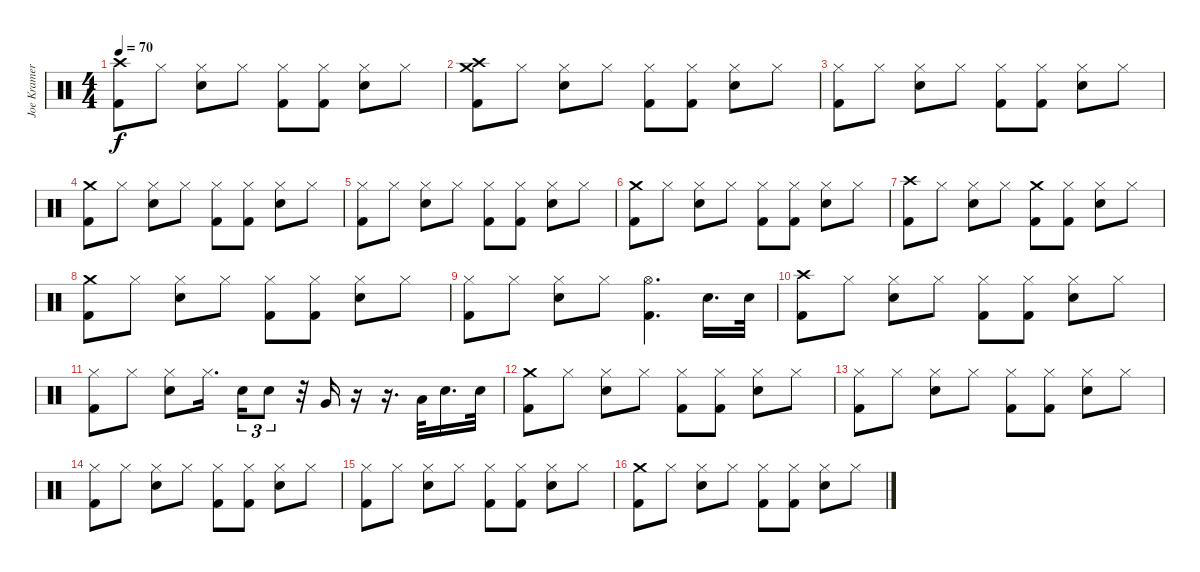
\track ("Joe Kramer" "Joe Kramer") {instrument percussion}
\staff {score}
\articulation defaults
\ts (4 4)
\tempo 70
\clef neutral
\ks c
("Crash high (hit)" "Kick (hit) 2").8{dy f} "Hi-Hat (closed)".8 ("Hi-Hat (closed)" "Snare (hit) 2").8 "Hi-Hat (closed)".8 ("Hi-Hat (closed)" "Kick (hit) 2").8 ("Hi-Hat (closed)" "Kick (hit) 2").8 ("Hi-Hat (closed)" "Snare (hit) 2").8 "Hi-Hat (closed)".8 |
("Crash medium (hit)" "Kick (hit) 2" "Crash high (hit)").8 "Hi-Hat (closed)".8 ("Hi-Hat (closed)" "Snare (hit) 2").8 "Hi-Hat (closed)".8 ("Hi-Hat (closed)" "Kick (hit) 2").8 ("Hi-Hat (closed)" "Kick (hit) 2").8 ("Hi-Hat (closed)" "Snare (hit) 2").8 "Hi-Hat (closed)".8 |
("Hi-Hat (closed)" "Kick (hit) 2").8 "Hi-Hat (closed)".8 ("Hi-Hat (closed)" "Snare (hit) 2").8 "Hi-Hat (closed)".8 ("Hi-Hat (closed)" "Kick (hit) 2").8 ("Hi-Hat (closed)" "Kick (hit) 2").8 ("Hi-Hat (closed)" "Snare (hit) 2").8 "Hi-Hat (closed)".8 |
("Crash medium (hit)" "Kick (hit) 2").8 "Hi-Hat (closed)".8 ("Hi-Hat (closed)" "Snare (hit) 2").8 "Hi-Hat (closed)".8 ("Hi-Hat (closed)" "Kick (hit) 2").8 ("Hi-Hat (closed)" "Kick (hit) 2").8 ("Hi-Hat (closed)" "Snare (hit) 2").8 "Hi-Hat (closed)".8 |
("Hi-Hat (closed)" "Kick (hit) 2").8 "Hi-Hat (closed)".8 ("Hi-Hat (closed)" "Snare (hit) 2").8 "Hi-Hat (closed)".8 ("Hi-Hat (closed)" "Kick (hit) 2").8 ("Hi-Hat (closed)" "Kick (hit) 2").8 ("Hi-Hat (closed)" "Snare (hit) 2").8 "Hi-Hat (closed)".8 |
("Crash medium (hit)" "Kick (hit) 2").8 "Hi-Hat (closed)".8 ("Hi-Hat (closed)" "Snare (hit) 2").8 "Hi-Hat (closed)".8 ("Hi-Hat (closed)" "Kick (hit) 2").8 ("Hi-Hat (closed)" "Kick (hit) 2").8 ("Hi-Hat (closed)" "Snare (hit) 2").8 "Hi-Hat (closed)".8 |
("Crash high (hit)" "Kick (hit) 2").8 "Hi-Hat (closed)".8 ("Hi-Hat (closed)" "Snare (hit) 2").8 "Hi-Hat (closed)".8 ("Crash medium (hit)" "Kick (hit) 2").8 ("Hi-Hat (closed)" "Kick (hit) 2").8 ("Hi-Hat (closed)" "Snare (hit) 2").8 "Hi-Hat (closed)".8 |
("Crash medium (hit)" "Kick (hit) 2").8 "Hi-Hat (closed)".8 ("Hi-Hat (closed)" "Snare (hit) 2").8 "Hi-Hat (closed)".8 ("Hi-Hat (closed)" "Kick (hit) 2").8 ("Hi-Hat (closed)" "Kick (hit) 2").8 ("Hi-Hat (closed)" "Snare (hit) 2").8 "Hi-Hat (closed)".8 |
("Hi-Hat (closed)" "Kick (hit) 2").8 "Hi-Hat (closed)".8 ("Hi-Hat (closed)" "Snare (hit) 2").8 "Hi-Hat (closed)".8 ("Hi-Hat (open)" "Kick (hit) 2").4{d} "Snare (hit) 2".16{d} "Snare (hit) 2".32 |
("Crash high (hit)" "Kick (hit) 2").8 "Hi-Hat (closed)".8 ("Hi-Hat (closed)" "Snare (hit) 2").8 "Hi-Hat (closed)".8 ("Hi-Hat (closed)" "Kick (hit) 2").8 ("Hi-Hat (closed)" "Kick (hit) 2").8 ("Hi-Hat (closed)" "Snare (hit) 2").8 "Hi-Hat (closed)".8 |
("Hi-Hat (closed)" "Kick (hit) 2").8 "Hi-Hat (closed)".8 ("Hi-Hat (closed)" "Snare (hit) 2").8 "Hi-Hat (closed)".16{d} "Snare (hit) 2".16{tu (3 2)} "Snare (hit) 2".8{tu (3 2)} r.32 "Very Low Tom (hit)".16 r.16 r.16{d} "Low Floor Tom (hit)".32 "Snare (hit) 2".16{d} "Snare (hit) 2".32 |
("Crash medium (hit)" "Kick (hit) 2").8 "Hi-Hat (closed)".8 ("Hi-Hat (closed)" "Snare (hit) 2").8 "Hi-Hat (closed)".8 ("Hi-Hat (closed)" "Kick (hit) 2").8 ("Hi-Hat (closed)" "Kick (hit) 2").8 ("Hi-Hat (closed)" "Snare (hit) 2").8 "Hi-Hat (closed)".8 |
("Hi-Hat (closed)" "Kick (hit) 2").8 "Hi-Hat (closed)".8 ("Hi-Hat (closed)" "Snare (hit) 2").8 "Hi-Hat (closed)".8 ("Hi-Hat (closed)" "Kick (hit) 2").8 ("Hi-Hat (closed)" "Kick (hit) 2").8 ("Hi-Hat (closed)" "Snare (hit) 2").8 "Hi-Hat (closed)".8 |
("Hi-Hat (closed)" "Kick (hit) 2").8 "Hi-Hat (closed)".8 ("Hi-Hat (closed)" "Snare (hit) 2").8 "Hi-Hat (closed)".8 ("Hi-Hat (closed)" "Kick (hit) 2").8 ("Hi-Hat (closed)" "Kick (hit) 2").8 ("Hi-Hat (closed)" "Snare (hit) 2").8 "Hi-Hat (closed)".8 |
("Hi-Hat (closed)" "Kick (hit) 2").8 "Hi-Hat (closed)".8 ("Hi-Hat (closed)" "Snare (hit) 2").8 "Hi-Hat (closed)".8 ("Hi-Hat (closed)" "Kick (hit) 2").8 ("Hi-Hat (closed)" "Kick (hit) 2").8 ("Hi-Hat (closed)" "Snare (hit) 2").8 "Hi-Hat (closed)".8 |
("Crash medium (hit)" "Kick (hit) 2").8 "Hi-Hat (closed)".8 ("Hi-Hat (closed)" "Snare (hit) 2").8 "Hi-Hat (closed)".8 ("Hi-Hat (closed)" "Kick (hit) 2").8 ("Hi-Hat (closed)" "Kick (hit) 2").8 ("Hi-Hat (closed)" "Snare (hit) 2").8 "Hi-Hat (closed)".8
